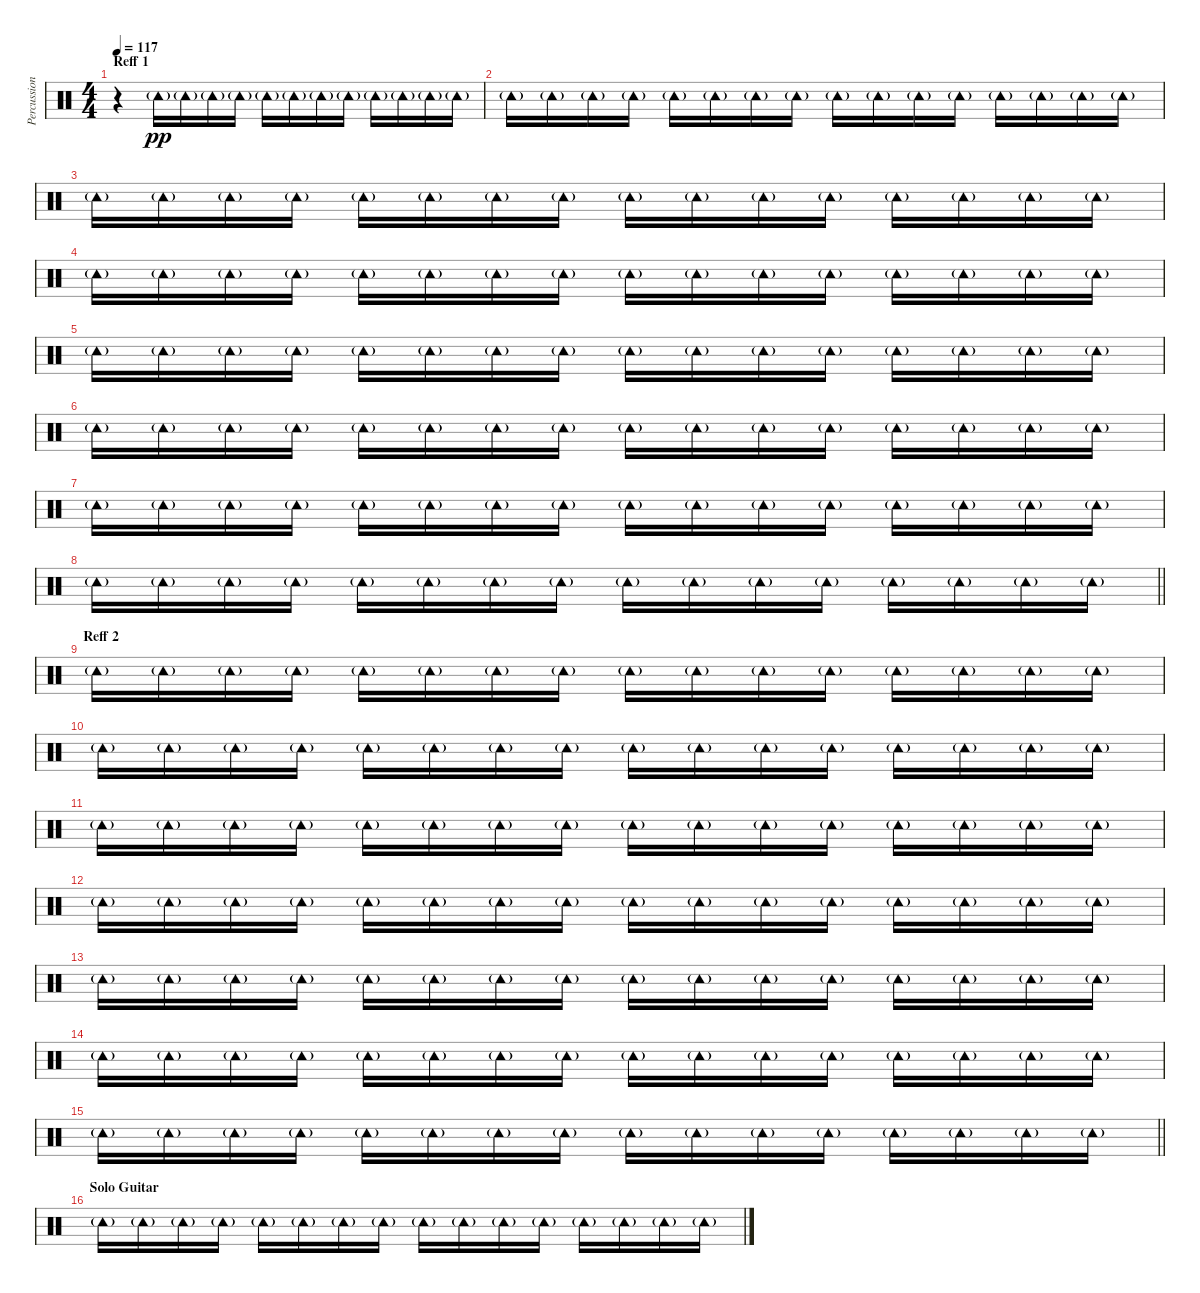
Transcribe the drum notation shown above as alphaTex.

\track ("Percussion 2" "Percussion") {instrument percussion}
\staff {score}
\articulation defaults
\ts (4 4)
\section ("" "Reff 1")
\tempo 117
\clef neutral
\ks c
r.4{dy pp} "Tambourine (hit)"{g}.16 "Tambourine (hit)"{g}.16 "Tambourine (hit)"{g}.16 "Tambourine (hit)"{g}.16 "Tambourine (hit)"{g}.16 "Tambourine (hit)"{g}.16 "Tambourine (hit)"{g}.16 "Tambourine (hit)"{g}.16 "Tambourine (hit)"{g}.16 "Tambourine (hit)"{g}.16 "Tambourine (hit)"{g}.16 "Tambourine (hit)"{g}.16 |
"Tambourine (hit)"{g}.16 "Tambourine (hit)"{g}.16 "Tambourine (hit)"{g}.16 "Tambourine (hit)"{g}.16 "Tambourine (hit)"{g}.16 "Tambourine (hit)"{g}.16 "Tambourine (hit)"{g}.16 "Tambourine (hit)"{g}.16 "Tambourine (hit)"{g}.16 "Tambourine (hit)"{g}.16 "Tambourine (hit)"{g}.16 "Tambourine (hit)"{g}.16 "Tambourine (hit)"{g}.16 "Tambourine (hit)"{g}.16 "Tambourine (hit)"{g}.16 "Tambourine (hit)"{g}.16 |
"Tambourine (hit)"{g}.16 "Tambourine (hit)"{g}.16 "Tambourine (hit)"{g}.16 "Tambourine (hit)"{g}.16 "Tambourine (hit)"{g}.16 "Tambourine (hit)"{g}.16 "Tambourine (hit)"{g}.16 "Tambourine (hit)"{g}.16 "Tambourine (hit)"{g}.16 "Tambourine (hit)"{g}.16 "Tambourine (hit)"{g}.16 "Tambourine (hit)"{g}.16 "Tambourine (hit)"{g}.16 "Tambourine (hit)"{g}.16 "Tambourine (hit)"{g}.16 "Tambourine (hit)"{g}.16 |
"Tambourine (hit)"{g}.16 "Tambourine (hit)"{g}.16 "Tambourine (hit)"{g}.16 "Tambourine (hit)"{g}.16 "Tambourine (hit)"{g}.16 "Tambourine (hit)"{g}.16 "Tambourine (hit)"{g}.16 "Tambourine (hit)"{g}.16 "Tambourine (hit)"{g}.16 "Tambourine (hit)"{g}.16 "Tambourine (hit)"{g}.16 "Tambourine (hit)"{g}.16 "Tambourine (hit)"{g}.16 "Tambourine (hit)"{g}.16 "Tambourine (hit)"{g}.16 "Tambourine (hit)"{g}.16 |
"Tambourine (hit)"{g}.16 "Tambourine (hit)"{g}.16 "Tambourine (hit)"{g}.16 "Tambourine (hit)"{g}.16 "Tambourine (hit)"{g}.16 "Tambourine (hit)"{g}.16 "Tambourine (hit)"{g}.16 "Tambourine (hit)"{g}.16 "Tambourine (hit)"{g}.16 "Tambourine (hit)"{g}.16 "Tambourine (hit)"{g}.16 "Tambourine (hit)"{g}.16 "Tambourine (hit)"{g}.16 "Tambourine (hit)"{g}.16 "Tambourine (hit)"{g}.16 "Tambourine (hit)"{g}.16 |
"Tambourine (hit)"{g}.16 "Tambourine (hit)"{g}.16 "Tambourine (hit)"{g}.16 "Tambourine (hit)"{g}.16 "Tambourine (hit)"{g}.16 "Tambourine (hit)"{g}.16 "Tambourine (hit)"{g}.16 "Tambourine (hit)"{g}.16 "Tambourine (hit)"{g}.16 "Tambourine (hit)"{g}.16 "Tambourine (hit)"{g}.16 "Tambourine (hit)"{g}.16 "Tambourine (hit)"{g}.16 "Tambourine (hit)"{g}.16 "Tambourine (hit)"{g}.16 "Tambourine (hit)"{g}.16 |
"Tambourine (hit)"{g}.16 "Tambourine (hit)"{g}.16 "Tambourine (hit)"{g}.16 "Tambourine (hit)"{g}.16 "Tambourine (hit)"{g}.16 "Tambourine (hit)"{g}.16 "Tambourine (hit)"{g}.16 "Tambourine (hit)"{g}.16 "Tambourine (hit)"{g}.16 "Tambourine (hit)"{g}.16 "Tambourine (hit)"{g}.16 "Tambourine (hit)"{g}.16 "Tambourine (hit)"{g}.16 "Tambourine (hit)"{g}.16 "Tambourine (hit)"{g}.16 "Tambourine (hit)"{g}.16 |
\barLineRight lightlight "Tambourine (hit)"{g}.16 "Tambourine (hit)"{g}.16 "Tambourine (hit)"{g}.16 "Tambourine (hit)"{g}.16 "Tambourine (hit)"{g}.16 "Tambourine (hit)"{g}.16 "Tambourine (hit)"{g}.16 "Tambourine (hit)"{g}.16 "Tambourine (hit)"{g}.16 "Tambourine (hit)"{g}.16 "Tambourine (hit)"{g}.16 "Tambourine (hit)"{g}.16 "Tambourine (hit)"{g}.16 "Tambourine (hit)"{g}.16 "Tambourine (hit)"{g}.16 "Tambourine (hit)"{g}.16
|
\section ("" "Reff 2")
"Tambourine (hit)"{g}.16 "Tambourine (hit)"{g}.16 "Tambourine (hit)"{g}.16 "Tambourine (hit)"{g}.16 "Tambourine (hit)"{g}.16 "Tambourine (hit)"{g}.16 "Tambourine (hit)"{g}.16 "Tambourine (hit)"{g}.16 "Tambourine (hit)"{g}.16 "Tambourine (hit)"{g}.16 "Tambourine (hit)"{g}.16 "Tambourine (hit)"{g}.16 "Tambourine (hit)"{g}.16 "Tambourine (hit)"{g}.16 "Tambourine (hit)"{g}.16 "Tambourine (hit)"{g}.16 |
"Tambourine (hit)"{g}.16 "Tambourine (hit)"{g}.16 "Tambourine (hit)"{g}.16 "Tambourine (hit)"{g}.16 "Tambourine (hit)"{g}.16 "Tambourine (hit)"{g}.16 "Tambourine (hit)"{g}.16 "Tambourine (hit)"{g}.16 "Tambourine (hit)"{g}.16 "Tambourine (hit)"{g}.16 "Tambourine (hit)"{g}.16 "Tambourine (hit)"{g}.16 "Tambourine (hit)"{g}.16 "Tambourine (hit)"{g}.16 "Tambourine (hit)"{g}.16 "Tambourine (hit)"{g}.16 |
"Tambourine (hit)"{g}.16 "Tambourine (hit)"{g}.16 "Tambourine (hit)"{g}.16 "Tambourine (hit)"{g}.16 "Tambourine (hit)"{g}.16 "Tambourine (hit)"{g}.16 "Tambourine (hit)"{g}.16 "Tambourine (hit)"{g}.16 "Tambourine (hit)"{g}.16 "Tambourine (hit)"{g}.16 "Tambourine (hit)"{g}.16 "Tambourine (hit)"{g}.16 "Tambourine (hit)"{g}.16 "Tambourine (hit)"{g}.16 "Tambourine (hit)"{g}.16 "Tambourine (hit)"{g}.16 |
"Tambourine (hit)"{g}.16 "Tambourine (hit)"{g}.16 "Tambourine (hit)"{g}.16 "Tambourine (hit)"{g}.16 "Tambourine (hit)"{g}.16 "Tambourine (hit)"{g}.16 "Tambourine (hit)"{g}.16 "Tambourine (hit)"{g}.16 "Tambourine (hit)"{g}.16 "Tambourine (hit)"{g}.16 "Tambourine (hit)"{g}.16 "Tambourine (hit)"{g}.16 "Tambourine (hit)"{g}.16 "Tambourine (hit)"{g}.16 "Tambourine (hit)"{g}.16 "Tambourine (hit)"{g}.16 |
"Tambourine (hit)"{g}.16 "Tambourine (hit)"{g}.16 "Tambourine (hit)"{g}.16 "Tambourine (hit)"{g}.16 "Tambourine (hit)"{g}.16 "Tambourine (hit)"{g}.16 "Tambourine (hit)"{g}.16 "Tambourine (hit)"{g}.16 "Tambourine (hit)"{g}.16 "Tambourine (hit)"{g}.16 "Tambourine (hit)"{g}.16 "Tambourine (hit)"{g}.16 "Tambourine (hit)"{g}.16 "Tambourine (hit)"{g}.16 "Tambourine (hit)"{g}.16 "Tambourine (hit)"{g}.16 |
"Tambourine (hit)"{g}.16 "Tambourine (hit)"{g}.16 "Tambourine (hit)"{g}.16 "Tambourine (hit)"{g}.16 "Tambourine (hit)"{g}.16 "Tambourine (hit)"{g}.16 "Tambourine (hit)"{g}.16 "Tambourine (hit)"{g}.16 "Tambourine (hit)"{g}.16 "Tambourine (hit)"{g}.16 "Tambourine (hit)"{g}.16 "Tambourine (hit)"{g}.16 "Tambourine (hit)"{g}.16 "Tambourine (hit)"{g}.16 "Tambourine (hit)"{g}.16 "Tambourine (hit)"{g}.16 |
\barLineRight lightlight "Tambourine (hit)"{g}.16 "Tambourine (hit)"{g}.16 "Tambourine (hit)"{g}.16 "Tambourine (hit)"{g}.16 "Tambourine (hit)"{g}.16 "Tambourine (hit)"{g}.16 "Tambourine (hit)"{g}.16 "Tambourine (hit)"{g}.16 "Tambourine (hit)"{g}.16 "Tambourine (hit)"{g}.16 "Tambourine (hit)"{g}.16 "Tambourine (hit)"{g}.16 "Tambourine (hit)"{g}.16 "Tambourine (hit)"{g}.16 "Tambourine (hit)"{g}.16 "Tambourine (hit)"{g}.16
|
\section ("" "Solo Guitar")
"Tambourine (hit)"{g}.16 "Tambourine (hit)"{g}.16 "Tambourine (hit)"{g}.16 "Tambourine (hit)"{g}.16 "Tambourine (hit)"{g}.16 "Tambourine (hit)"{g}.16 "Tambourine (hit)"{g}.16 "Tambourine (hit)"{g}.16 "Tambourine (hit)"{g}.16 "Tambourine (hit)"{g}.16 "Tambourine (hit)"{g}.16 "Tambourine (hit)"{g}.16 "Tambourine (hit)"{g}.16 "Tambourine (hit)"{g}.16 "Tambourine (hit)"{g}.16 "Tambourine (hit)"{g}.16
